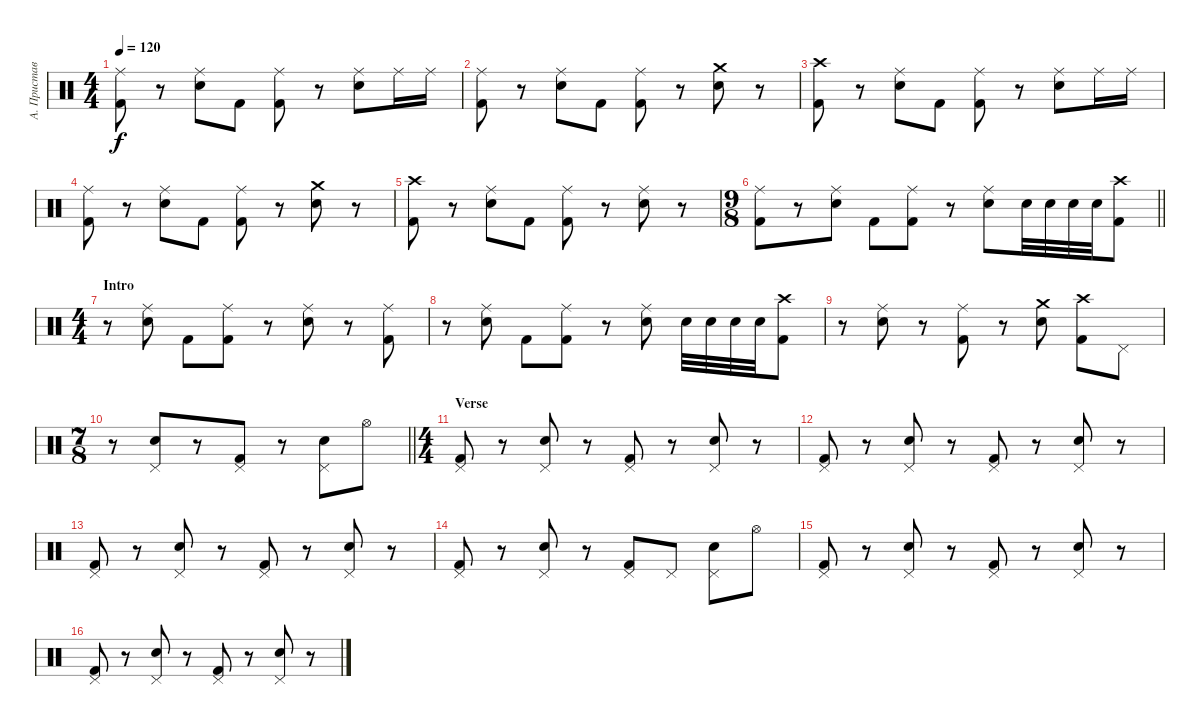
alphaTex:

\track ("А. Приставка" "А. Пристав") {instrument percussion}
\staff {score}
\articulation defaults
\ts (4 4)
\tempo 120
\clef neutral
\ks c
("Ride (middle)" "Kick (hit) 2").8{dy f} r.8 ("Ride (middle)" "Electric Snare (hit)").8 "Kick (hit) 2".8 ("Ride (middle)" "Kick (hit) 2").8 r.8 ("Ride (middle)" "Electric Snare (hit)").8 "Ride (middle)".16 "Ride (middle)".16 |
("Ride (middle)" "Kick (hit) 2").8 r.8 ("Ride (middle)" "Electric Snare (hit)").8 "Kick (hit) 2".8 ("Ride (middle)" "Kick (hit) 2").8 r.8 ("Crash medium (hit)" "Electric Snare (hit)").8 r.8 |
("Crash high (hit)" "Kick (hit) 2").8 r.8 ("Ride (middle)" "Electric Snare (hit)").8 "Kick (hit) 2".8 ("Ride (middle)" "Kick (hit) 2").8 r.8 ("Ride (middle)" "Electric Snare (hit)").8 "Ride (middle)".16 "Ride (middle)".16 |
("Ride (middle)" "Kick (hit) 2").8 r.8 ("Ride (middle)" "Electric Snare (hit)").8 "Kick (hit) 2".8 ("Ride (middle)" "Kick (hit) 2").8 r.8 ("Crash medium (hit)" "Electric Snare (hit)").8 r.8 |
("Crash high (hit)" "Kick (hit) 2").8 r.8 ("Ride (middle)" "Electric Snare (hit)").8 "Kick (hit) 2".8 ("Ride (middle)" "Kick (hit) 2").8 r.8 ("Ride (middle)" "Electric Snare (hit)").8 r.8 |
\ts (9 8)
\barLineRight lightlight
("Ride (middle)" "Kick (hit) 2").8 r.8 ("Ride (middle)" "Electric Snare (hit)").8 "Kick (hit) 2".8 ("Ride (middle)" "Kick (hit) 2").8 r.8 ("Ride (middle)" "Electric Snare (hit)").8 "Electric Snare (hit)".32 "Electric Snare (hit)".32 "Electric Snare (hit)".32 "Electric Snare (hit)".32 ("Crash high (hit)" "Kick (hit) 2").8 |
\ts (4 4)
\section ("" "Intro")
r.8 ("Ride (middle)" "Electric Snare (hit)").8 "Kick (hit) 2".8 ("Ride (middle)" "Kick (hit) 2").8 r.8 ("Ride (middle)" "Electric Snare (hit)").8 r.8 ("Ride (middle)" "Kick (hit) 2").8 |
r.8 ("Ride (middle)" "Electric Snare (hit)").8 "Kick (hit) 2".8 ("Ride (middle)" "Kick (hit) 2").8 r.8 ("Ride (middle)" "Electric Snare (hit)").8 "Electric Snare (hit)".32 "Electric Snare (hit)".32 "Electric Snare (hit)".32 "Electric Snare (hit)".32 ("Crash high (hit)" "Kick (hit) 2").8 |
r.8 ("Ride (middle)" "Electric Snare (hit)").8 r.8 ("Ride (middle)" "Kick (hit) 2").8 r.8 ("Crash medium (hit)" "Electric Snare (hit)").8 ("Crash high (hit)" "Kick (hit) 2").8 "Pedal Hi-Hat (hit)".8 |
\ts (7 8)
\barLineRight lightlight
r.8 ("Pedal Hi-Hat (hit)" "Electric Snare (hit)").8 r.8 ("Pedal Hi-Hat (hit)" "Kick (hit) 2").8 r.8 ("Pedal Hi-Hat (hit)" "Electric Snare (hit)").8 "Hi-Hat (open)".8 |
\ts (4 4)
\section ("" "Verse")
("Pedal Hi-Hat (hit)" "Kick (hit) 2").8 r.8 ("Pedal Hi-Hat (hit)" "Electric Snare (hit)").8 r.8 ("Pedal Hi-Hat (hit)" "Kick (hit) 2").8 r.8 ("Pedal Hi-Hat (hit)" "Electric Snare (hit)").8 r.8 |
("Pedal Hi-Hat (hit)" "Kick (hit) 2").8 r.8 ("Pedal Hi-Hat (hit)" "Electric Snare (hit)").8 r.8 ("Pedal Hi-Hat (hit)" "Kick (hit) 2").8 r.8 ("Pedal Hi-Hat (hit)" "Electric Snare (hit)").8 r.8 |
("Pedal Hi-Hat (hit)" "Kick (hit) 2").8 r.8 ("Pedal Hi-Hat (hit)" "Electric Snare (hit)").8 r.8 ("Pedal Hi-Hat (hit)" "Kick (hit) 2").8 r.8 ("Pedal Hi-Hat (hit)" "Electric Snare (hit)").8 r.8 |
("Pedal Hi-Hat (hit)" "Kick (hit) 2").8 r.8 ("Pedal Hi-Hat (hit)" "Electric Snare (hit)").8 r.8 ("Pedal Hi-Hat (hit)" "Kick (hit) 2").8 "Pedal Hi-Hat (hit)".8 ("Pedal Hi-Hat (hit)" "Electric Snare (hit)").8 "Hi-Hat (open)".8 |
("Pedal Hi-Hat (hit)" "Kick (hit) 2").8 r.8 ("Pedal Hi-Hat (hit)" "Electric Snare (hit)").8 r.8 ("Pedal Hi-Hat (hit)" "Kick (hit) 2").8 r.8 ("Pedal Hi-Hat (hit)" "Electric Snare (hit)").8 r.8 |
("Pedal Hi-Hat (hit)" "Kick (hit) 2").8 r.8 ("Pedal Hi-Hat (hit)" "Electric Snare (hit)").8 r.8 ("Pedal Hi-Hat (hit)" "Kick (hit) 2").8 r.8 ("Pedal Hi-Hat (hit)" "Electric Snare (hit)").8 r.8
